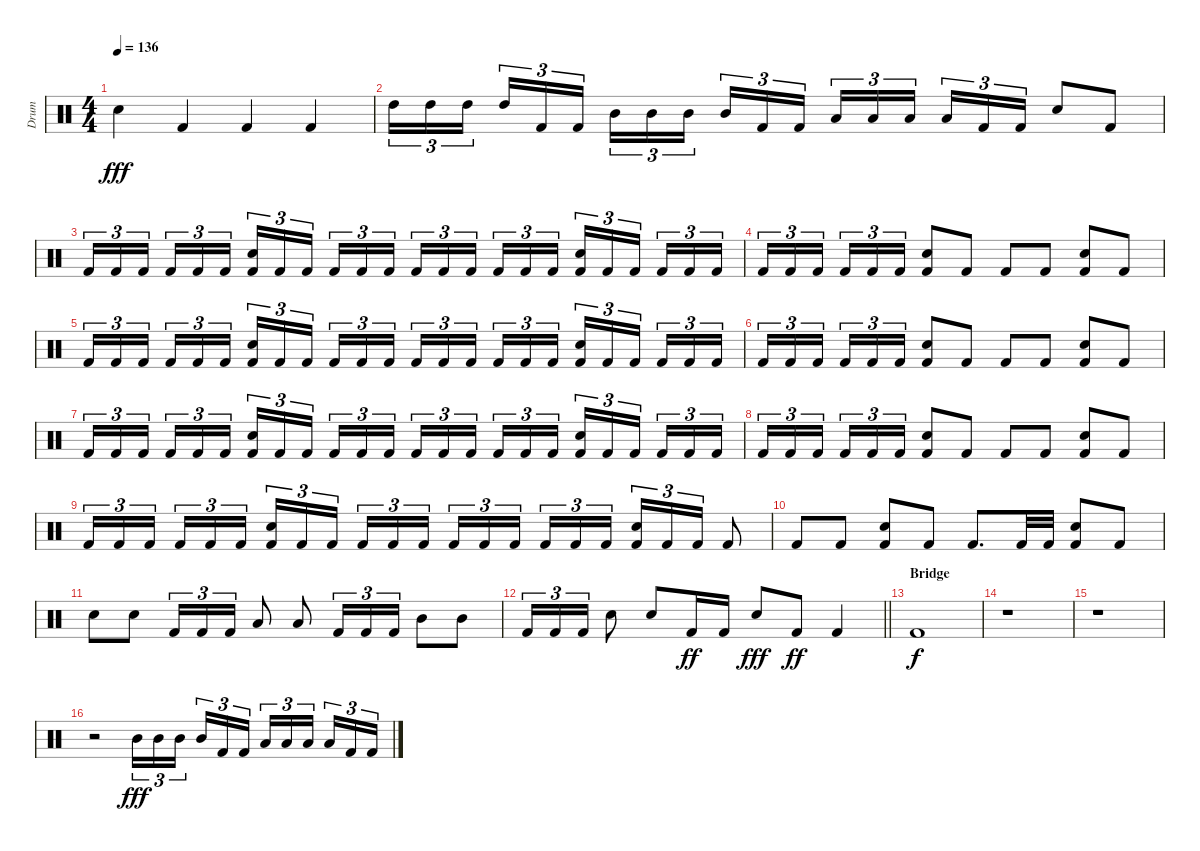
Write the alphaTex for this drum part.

\track ("Drum" "Drum") {instrument percussion}
\staff {score}
\articulation defaults
\ts (4 4)
\tempo 136
\clef neutral
\ks c "Electric Snare (hit)".4{dy fff} "Kick (hit) 2".4 "Kick (hit) 2".4 "Kick (hit) 2".4
|
"High Tom (hit)".16{tu (3 2)} "High Tom (hit)".16{tu (3 2)} "High Tom (hit)".16{tu (3 2) beam splitsecondary} "High Tom (hit)".16{tu (3 2)} "Kick (hit) 2".16{tu (3 2)} "Kick (hit) 2".16{tu (3 2)} "Mid Tom (hit)".16{tu (3 2)} "Mid Tom (hit)".16{tu (3 2)} "Mid Tom (hit)".16{tu (3 2) beam splitsecondary} "Mid Tom (hit)".16{tu (3 2)} "Kick (hit) 2".16{tu (3 2)} "Kick (hit) 2".16{tu (3 2)} "Low Tom (hit)".16{tu (3 2)} "Low Tom (hit)".16{tu (3 2)} "Low Tom (hit)".16{tu (3 2) beam splitsecondary} "Low Tom (hit)".16{tu (3 2)} "Kick (hit) 2".16{tu (3 2)} "Kick (hit) 2".16{tu (3 2)} "Electric Snare (hit)".8 "Kick (hit) 2".8 |
"Kick (hit) 2".16{tu (3 2)} "Kick (hit) 2".16{tu (3 2)} "Kick (hit) 2".16{tu (3 2) beam splitsecondary} "Kick (hit) 2".16{tu (3 2)} "Kick (hit) 2".16{tu (3 2)} "Kick (hit) 2".16{tu (3 2)} ("Electric Snare (hit)" "Kick (hit) 2").16{tu (3 2)} "Kick (hit) 2".16{tu (3 2)} "Kick (hit) 2".16{tu (3 2) beam splitsecondary} "Kick (hit) 2".16{tu (3 2)} "Kick (hit) 2".16{tu (3 2)} "Kick (hit) 2".16{tu (3 2)} "Kick (hit) 2".16{tu (3 2)} "Kick (hit) 2".16{tu (3 2)} "Kick (hit) 2".16{tu (3 2) beam splitsecondary} "Kick (hit) 2".16{tu (3 2)} "Kick (hit) 2".16{tu (3 2)} "Kick (hit) 2".16{tu (3 2)} ("Electric Snare (hit)" "Kick (hit) 2").16{tu (3 2)} "Kick (hit) 2".16{tu (3 2)} "Kick (hit) 2".16{tu (3 2) beam splitsecondary} "Kick (hit) 2".16{tu (3 2)} "Kick (hit) 2".16{tu (3 2)} "Kick (hit) 2".16{tu (3 2)} |
"Kick (hit) 2".16{tu (3 2)} "Kick (hit) 2".16{tu (3 2)} "Kick (hit) 2".16{tu (3 2) beam splitsecondary} "Kick (hit) 2".16{tu (3 2)} "Kick (hit) 2".16{tu (3 2)} "Kick (hit) 2".16{tu (3 2)} ("Electric Snare (hit)" "Kick (hit) 2").8 "Kick (hit) 2".8 "Kick (hit) 2".8 "Kick (hit) 2".8 ("Electric Snare (hit)" "Kick (hit) 2").8 "Kick (hit) 2".8 |
"Kick (hit) 2".16{tu (3 2)} "Kick (hit) 2".16{tu (3 2)} "Kick (hit) 2".16{tu (3 2) beam splitsecondary} "Kick (hit) 2".16{tu (3 2)} "Kick (hit) 2".16{tu (3 2)} "Kick (hit) 2".16{tu (3 2)} ("Electric Snare (hit)" "Kick (hit) 2").16{tu (3 2)} "Kick (hit) 2".16{tu (3 2)} "Kick (hit) 2".16{tu (3 2) beam splitsecondary} "Kick (hit) 2".16{tu (3 2)} "Kick (hit) 2".16{tu (3 2)} "Kick (hit) 2".16{tu (3 2)} "Kick (hit) 2".16{tu (3 2)} "Kick (hit) 2".16{tu (3 2)} "Kick (hit) 2".16{tu (3 2) beam splitsecondary} "Kick (hit) 2".16{tu (3 2)} "Kick (hit) 2".16{tu (3 2)} "Kick (hit) 2".16{tu (3 2)} ("Electric Snare (hit)" "Kick (hit) 2").16{tu (3 2)} "Kick (hit) 2".16{tu (3 2)} "Kick (hit) 2".16{tu (3 2) beam splitsecondary} "Kick (hit) 2".16{tu (3 2)} "Kick (hit) 2".16{tu (3 2)} "Kick (hit) 2".16{tu (3 2)} |
"Kick (hit) 2".16{tu (3 2)} "Kick (hit) 2".16{tu (3 2)} "Kick (hit) 2".16{tu (3 2) beam splitsecondary} "Kick (hit) 2".16{tu (3 2)} "Kick (hit) 2".16{tu (3 2)} "Kick (hit) 2".16{tu (3 2)} ("Electric Snare (hit)" "Kick (hit) 2").8 "Kick (hit) 2".8 "Kick (hit) 2".8 "Kick (hit) 2".8 ("Electric Snare (hit)" "Kick (hit) 2").8 "Kick (hit) 2".8 |
"Kick (hit) 2".16{tu (3 2)} "Kick (hit) 2".16{tu (3 2)} "Kick (hit) 2".16{tu (3 2) beam splitsecondary} "Kick (hit) 2".16{tu (3 2)} "Kick (hit) 2".16{tu (3 2)} "Kick (hit) 2".16{tu (3 2)} ("Electric Snare (hit)" "Kick (hit) 2").16{tu (3 2)} "Kick (hit) 2".16{tu (3 2)} "Kick (hit) 2".16{tu (3 2) beam splitsecondary} "Kick (hit) 2".16{tu (3 2)} "Kick (hit) 2".16{tu (3 2)} "Kick (hit) 2".16{tu (3 2)} "Kick (hit) 2".16{tu (3 2)} "Kick (hit) 2".16{tu (3 2)} "Kick (hit) 2".16{tu (3 2) beam splitsecondary} "Kick (hit) 2".16{tu (3 2)} "Kick (hit) 2".16{tu (3 2)} "Kick (hit) 2".16{tu (3 2)} ("Electric Snare (hit)" "Kick (hit) 2").16{tu (3 2)} "Kick (hit) 2".16{tu (3 2)} "Kick (hit) 2".16{tu (3 2) beam splitsecondary} "Kick (hit) 2".16{tu (3 2)} "Kick (hit) 2".16{tu (3 2)} "Kick (hit) 2".16{tu (3 2)} |
"Kick (hit) 2".16{tu (3 2)} "Kick (hit) 2".16{tu (3 2)} "Kick (hit) 2".16{tu (3 2) beam splitsecondary} "Kick (hit) 2".16{tu (3 2)} "Kick (hit) 2".16{tu (3 2)} "Kick (hit) 2".16{tu (3 2)} ("Electric Snare (hit)" "Kick (hit) 2").8 "Kick (hit) 2".8 "Kick (hit) 2".8 "Kick (hit) 2".8 ("Electric Snare (hit)" "Kick (hit) 2").8 "Kick (hit) 2".8 |
"Kick (hit) 2".16{tu (3 2)} "Kick (hit) 2".16{tu (3 2)} "Kick (hit) 2".16{tu (3 2) beam splitsecondary} "Kick (hit) 2".16{tu (3 2)} "Kick (hit) 2".16{tu (3 2)} "Kick (hit) 2".16{tu (3 2)} ("Electric Snare (hit)" "Kick (hit) 2").16{tu (3 2)} "Kick (hit) 2".16{tu (3 2)} "Kick (hit) 2".16{tu (3 2) beam splitsecondary} "Kick (hit) 2".16{tu (3 2)} "Kick (hit) 2".16{tu (3 2)} "Kick (hit) 2".16{tu (3 2)} "Kick (hit) 2".16{tu (3 2)} "Kick (hit) 2".16{tu (3 2)} "Kick (hit) 2".16{tu (3 2) beam splitsecondary} "Kick (hit) 2".16{tu (3 2)} "Kick (hit) 2".16{tu (3 2)} "Kick (hit) 2".16{tu (3 2)} ("Electric Snare (hit)" "Kick (hit) 2").16{tu (3 2)} "Kick (hit) 2".16{tu (3 2)} "Kick (hit) 2".16{tu (3 2)} "Kick (hit) 2".8 |
"Kick (hit) 2".8 "Kick (hit) 2".8 ("Electric Snare (hit)" "Kick (hit) 2").8 "Kick (hit) 2".8 "Kick (hit) 2".8{d} "Kick (hit) 2".32 "Kick (hit) 2".32 ("Electric Snare (hit)" "Kick (hit) 2").8 "Kick (hit) 2".8 |
"Electric Snare (hit)".8 "Electric Snare (hit)".8 "Kick (hit) 2".16{tu (3 2)} "Kick (hit) 2".16{tu (3 2)} "Kick (hit) 2".16{tu (3 2)} "Low Tom (hit)".8 "Low Tom (hit)".8 "Kick (hit) 2".16{tu (3 2)} "Kick (hit) 2".16{tu (3 2)} "Kick (hit) 2".16{tu (3 2)} "Mid Tom (hit)".8 "Mid Tom (hit)".8 |
\barLineRight lightlight "Kick (hit) 2".16{tu (3 2)} "Kick (hit) 2".16{tu (3 2)} "Kick (hit) 2".16{tu (3 2)} "Electric Snare (hit)".8 "Electric Snare (hit)".8 "Kick (hit) 2".16{dy ff} "Kick (hit) 2".16 "Electric Snare (hit)".8{dy fff} "Kick (hit) 2".8{dy ff} "Kick (hit) 2".4
|
\section ("" "Bridge")
"Kick (hit) 2".1{dy f} |
r.1 |
r.1 |
r.2 "Mid Tom (hit)".16{tu (3 2) dy fff} "Mid Tom (hit)".16{tu (3 2)} "Mid Tom (hit)".16{tu (3 2) beam splitsecondary} "Mid Tom (hit)".16{tu (3 2)} "Kick (hit) 2".16{tu (3 2)} "Kick (hit) 2".16{tu (3 2)} "Low Tom (hit)".16{tu (3 2)} "Low Tom (hit)".16{tu (3 2)} "Low Tom (hit)".16{tu (3 2) beam splitsecondary} "Low Tom (hit)".16{tu (3 2)} "Kick (hit) 2".16{tu (3 2)} "Kick (hit) 2".16{tu (3 2)}
